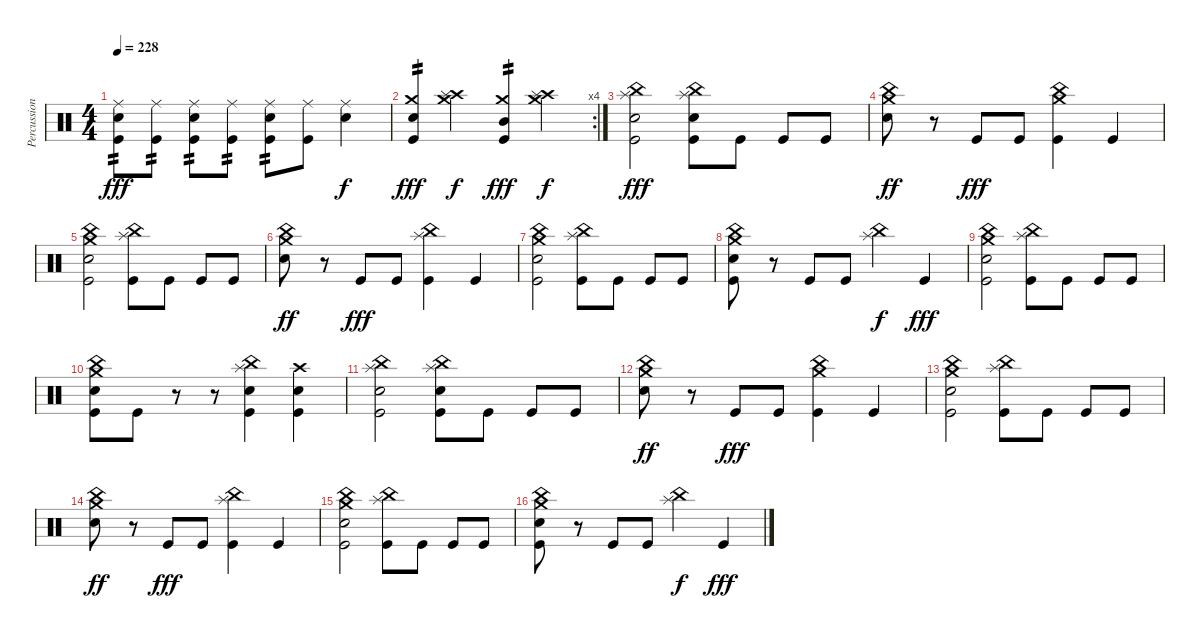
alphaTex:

\track ("Percussion" "Percussion") {instrument percussion}
\staff {score}
\articulation defaults
\ts (4 4)
\tempo 228
\clef neutral
\ks c
("Ride (middle)" "Snare (hit) 2" "Kick (hit)").8{tp 2 dy fff} ("Ride (middle)" "Kick (hit)").8{tp 2} ("Ride (middle)" "Snare (hit) 2" "Kick (hit)").8{tp 2} ("Ride (middle)" "Kick (hit)").8{tp 2} ("Ride (middle)" "Snare (hit) 2" "Kick (hit)").8{tp 2} ("Ride (middle)" "Kick (hit)").8 ("Ride (middle)" "Snare (hit) 2").4{dy f} |
\rc 4
("Crash medium (hit)" "Electric Snare (hit)" "Kick (hit)").4{tp 2 dy fff} ("Crash high (hit)" "Crash medium (hit)" "Splash (hit)").4{dy f} ("Crash medium (hit)" "Mid Tom (hit)" "Kick (hit)").4{tp 2 dy fff} ("Crash high (hit)" "Crash medium (hit)" "Splash (hit)").4{dy f} |
("Splash (hit)" "China (hit)" "Electric Snare (hit)" "Kick (hit)").2{dy fff} ("China (hit)" "Splash (hit)" "Electric Snare (hit)" "Kick (hit)").8 "Kick (hit)".8 "Kick (hit)".8 "Kick (hit)".8 |
("China (hit)" "Crash medium (hit)" "Electric Snare (hit)").8{dy ff} r.8 "Kick (hit)".8{dy fff} "Kick (hit)".8 ("China (hit)" "Crash medium (hit)" "Kick (hit)").4 "Kick (hit)".4 |
("China (hit)" "Crash medium (hit)" "Electric Snare (hit)" "Kick (hit)").2 ("China (hit)" "Splash (hit)" "Kick (hit)").8 "Kick (hit)".8 "Kick (hit)".8 "Kick (hit)".8 |
("China (hit)" "Crash medium (hit)" "Electric Snare (hit)").8{dy ff} r.8 "Kick (hit)".8{dy fff} "Kick (hit)".8 ("China (hit)" "Splash (hit)" "Kick (hit)").4 "Kick (hit)".4 |
("China (hit)" "Crash medium (hit)" "Electric Snare (hit)" "Kick (hit)").2 ("China (hit)" "Splash (hit)" "Kick (hit)").8 "Kick (hit)".8 "Kick (hit)".8 "Kick (hit)".8 |
("China (hit)" "Crash medium (hit)" "Electric Snare (hit)" "Kick (hit)").8 r.8 "Kick (hit)".8 "Kick (hit)".8 ("China (hit)" "Splash (hit)").4{dy f} "Kick (hit)".4{dy fff} |
("China (hit)" "Crash medium (hit)" "Electric Snare (hit)" "Kick (hit)").2 ("China (hit)" "Splash (hit)" "Kick (hit)").8 "Kick (hit)".8 "Kick (hit)".8 "Kick (hit)".8 |
("China (hit)" "Crash medium (hit)" "Electric Snare (hit)" "Kick (hit)").8 "Kick (hit)".8 r.8 r.8 ("China (hit)" "Splash (hit)" "Electric Snare (hit)" "Kick (hit)").4 ("Crash high (hit)" "Electric Snare (hit)" "Kick (hit)").4 |
("Splash (hit)" "China (hit)" "Electric Snare (hit)" "Kick (hit)").2 ("China (hit)" "Splash (hit)" "Electric Snare (hit)" "Kick (hit)").8 "Kick (hit)".8 "Kick (hit)".8 "Kick (hit)".8 |
("China (hit)" "Crash medium (hit)" "Electric Snare (hit)").8{dy ff} r.8 "Kick (hit)".8{dy fff} "Kick (hit)".8 ("China (hit)" "Crash medium (hit)" "Kick (hit)").4 "Kick (hit)".4 |
("China (hit)" "Crash medium (hit)" "Electric Snare (hit)" "Kick (hit)").2 ("China (hit)" "Splash (hit)" "Kick (hit)").8 "Kick (hit)".8 "Kick (hit)".8 "Kick (hit)".8 |
("China (hit)" "Crash medium (hit)" "Electric Snare (hit)").8{dy ff} r.8 "Kick (hit)".8{dy fff} "Kick (hit)".8 ("China (hit)" "Splash (hit)" "Kick (hit)").4 "Kick (hit)".4 |
("China (hit)" "Crash medium (hit)" "Electric Snare (hit)" "Kick (hit)").2 ("China (hit)" "Splash (hit)" "Kick (hit)").8 "Kick (hit)".8 "Kick (hit)".8 "Kick (hit)".8 |
("China (hit)" "Crash medium (hit)" "Electric Snare (hit)" "Kick (hit)").8 r.8 "Kick (hit)".8 "Kick (hit)".8 ("China (hit)" "Splash (hit)").4{dy f} "Kick (hit)".4{dy fff}
